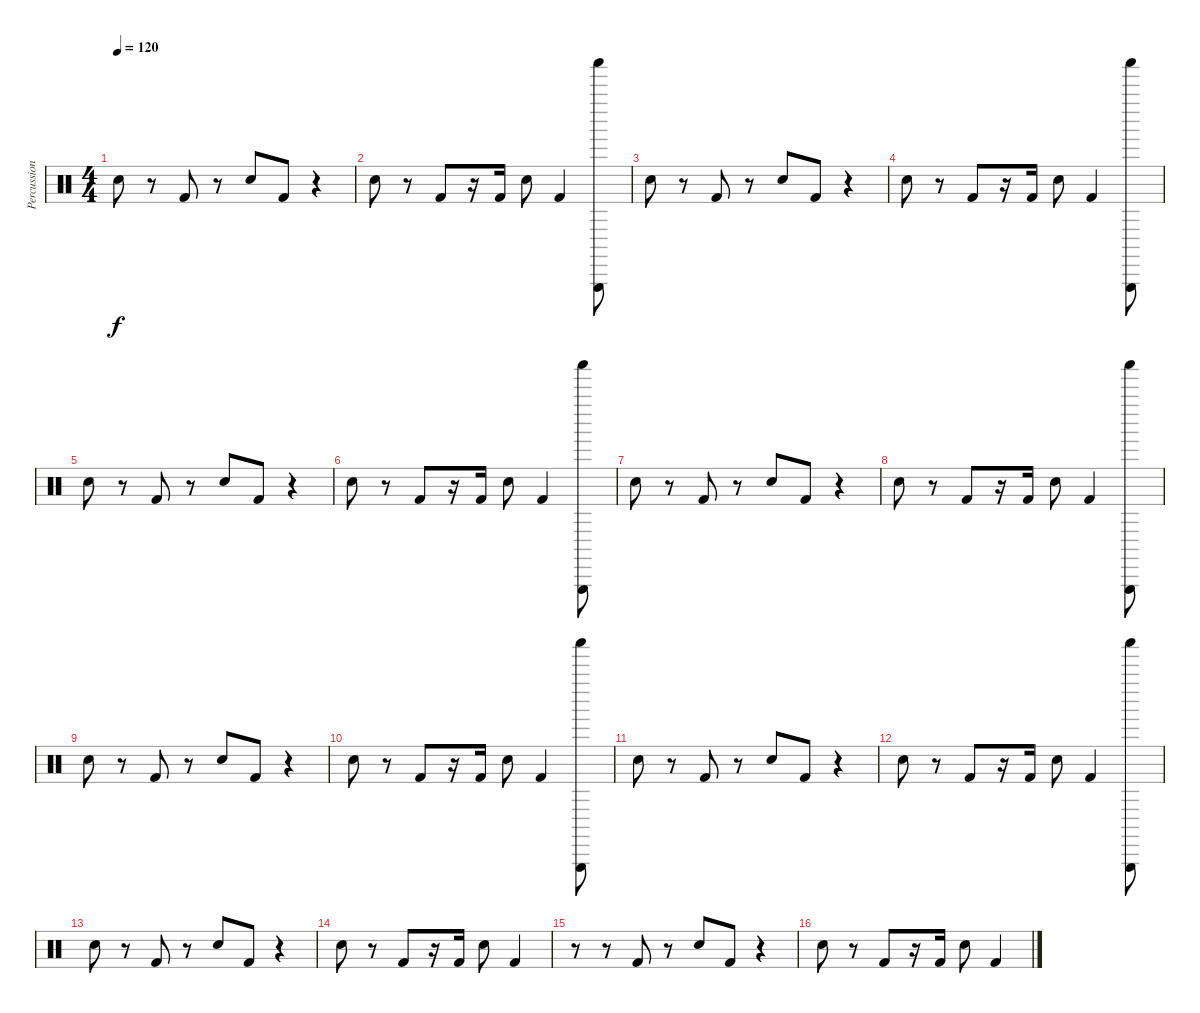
\track ("Percussion" "Percussion") {instrument percussion}
\staff {score}
\articulation defaults
\ts (4 4)
\tempo 120
\clef neutral
\ks c "Hand Clap (hit)".8{dy f}
r.8 "Kick (hit) 2".8 r.8 "Hand Clap (hit)".8 "Kick (hit) 2".8 r.4 |
"Hand Clap (hit)".8 r.8 "Kick (hit) 2".8 r.16 "Kick (hit) 2".16 "Hand Clap (hit)".8 "Kick (hit) 2".4 ("Shaker (hit)" "Triangle (hit)").8 |
"Hand Clap (hit)".8 r.8 "Kick (hit) 2".8 r.8 "Hand Clap (hit)".8 "Kick (hit) 2".8 r.4 |
"Hand Clap (hit)".8 r.8 "Kick (hit) 2".8 r.16 "Kick (hit) 2".16 "Hand Clap (hit)".8 "Kick (hit) 2".4 ("Shaker (hit)" "Triangle (hit)").8 |
"Hand Clap (hit)".8 r.8 "Kick (hit) 2".8 r.8 "Hand Clap (hit)".8 "Kick (hit) 2".8 r.4 |
"Hand Clap (hit)".8 r.8 "Kick (hit) 2".8 r.16 "Kick (hit) 2".16 "Hand Clap (hit)".8 "Kick (hit) 2".4 ("Shaker (hit)" "Triangle (hit)").8 |
"Hand Clap (hit)".8 r.8 "Kick (hit) 2".8 r.8 "Hand Clap (hit)".8 "Kick (hit) 2".8 r.4 |
"Hand Clap (hit)".8 r.8 "Kick (hit) 2".8 r.16 "Kick (hit) 2".16 "Hand Clap (hit)".8 "Kick (hit) 2".4 ("Shaker (hit)" "Triangle (hit)").8 |
"Hand Clap (hit)".8 r.8 "Kick (hit) 2".8 r.8 "Hand Clap (hit)".8 "Kick (hit) 2".8 r.4 |
"Hand Clap (hit)".8 r.8 "Kick (hit) 2".8 r.16 "Kick (hit) 2".16 "Hand Clap (hit)".8 "Kick (hit) 2".4 ("Shaker (hit)" "Triangle (hit)").8 |
"Hand Clap (hit)".8 r.8 "Kick (hit) 2".8 r.8 "Hand Clap (hit)".8 "Kick (hit) 2".8 r.4 |
"Hand Clap (hit)".8 r.8 "Kick (hit) 2".8 r.16 "Kick (hit) 2".16 "Hand Clap (hit)".8 "Kick (hit) 2".4 ("Shaker (hit)" "Triangle (hit)").8 |
"Hand Clap (hit)".8 r.8 "Kick (hit) 2".8 r.8 "Hand Clap (hit)".8 "Kick (hit) 2".8 r.4 |
"Hand Clap (hit)".8 r.8 "Kick (hit) 2".8 r.16 "Kick (hit) 2".16 "Hand Clap (hit)".8 "Kick (hit) 2".4 |
r.8 r.8 "Kick (hit) 2".8 r.8 "Hand Clap (hit)".8 "Kick (hit) 2".8 r.4 |
"Hand Clap (hit)".8 r.8 "Kick (hit) 2".8 r.16 "Kick (hit) 2".16 "Hand Clap (hit)".8 "Kick (hit) 2".4
